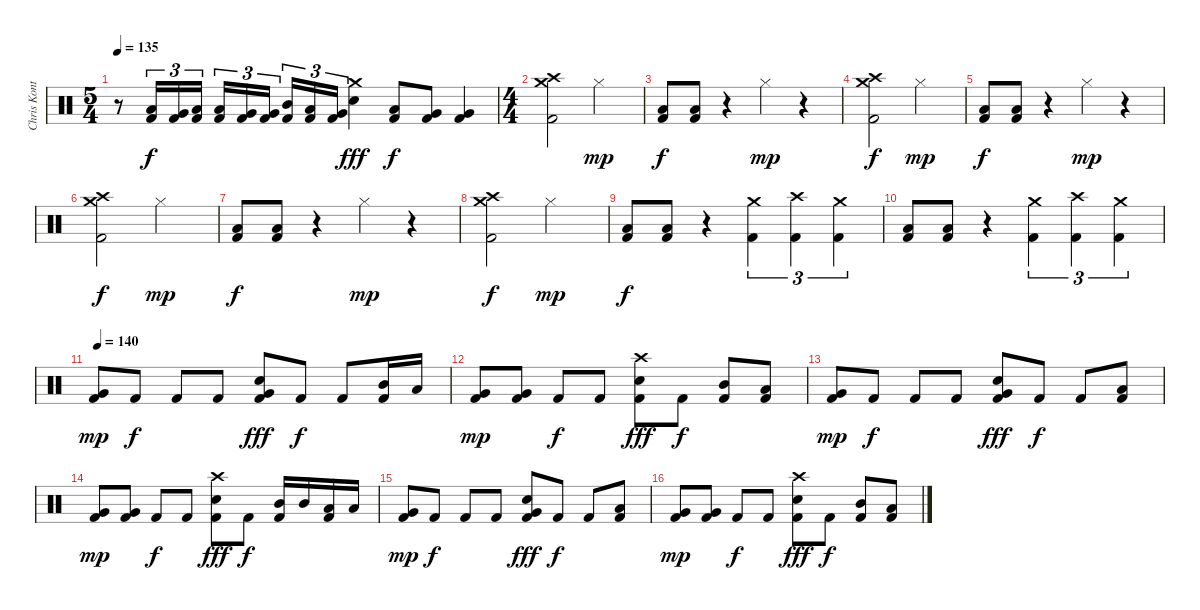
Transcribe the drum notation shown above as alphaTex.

\track ("Chris Kontos" "Chris Kont") {instrument percussion}
\staff {score}
\articulation defaults
\ts (5 4)
\tempo 135
\clef neutral
\ks c
r.8{dy f} ("Low Tom (hit)" "Kick (hit) 2").16{tu (3 2)} ("Very Low Tom (hit)" "Kick (hit) 2").16{tu (3 2)} ("Low Tom (hit)" "Kick (hit) 2").16{tu (3 2)} ("Low Tom (hit)" "Kick (hit) 2").16{tu (3 2)} ("Very Low Tom (hit)" "Kick (hit) 2").16{tu (3 2)} ("Very Low Tom (hit)" "Kick (hit) 2").16{tu (3 2)} ("Mid Tom (hit)" "Kick (hit) 2").16{tu (3 2)} ("Low Tom (hit)" "Kick (hit) 2").16{tu (3 2)} ("Very Low Tom (hit)" "Kick (hit) 2").16{tu (3 2)} ("Crash medium (hit)" "Electric Snare (hit)").4{dy fff} ("Low Tom (hit)" "Kick (hit) 2").8{dy f} ("Very Low Tom (hit)" "Kick (hit) 2").8 ("Very Low Tom (hit)" "Kick (hit) 2").4 |
\ts (4 4)
("Crash medium (hit)" "Crash high (hit)" "Kick (hit) 2").2 "Hi-Hat (closed)".2{dy mp} |
("Low Tom (hit)" "Kick (hit) 2").8{dy f} ("Low Tom (hit)" "Kick (hit) 2").8 r.4 "Hi-Hat (closed)".4{dy mp} r.4 |
("Crash medium (hit)" "Crash high (hit)" "Kick (hit) 2").2{dy f} "Hi-Hat (closed)".2{dy mp} |
("Low Tom (hit)" "Kick (hit) 2").8{dy f} ("Low Tom (hit)" "Kick (hit) 2").8 r.4 "Hi-Hat (closed)".4{dy mp} r.4 |
("Crash medium (hit)" "Crash high (hit)" "Kick (hit) 2").2{dy f} "Hi-Hat (closed)".2{dy mp} |
("Low Tom (hit)" "Kick (hit) 2").8{dy f} ("Low Tom (hit)" "Kick (hit) 2").8 r.4 "Hi-Hat (closed)".4{dy mp} r.4 |
("Crash medium (hit)" "Crash high (hit)" "Kick (hit) 2").2{dy f} "Hi-Hat (closed)".2{dy mp} |
("Low Tom (hit)" "Kick (hit) 2").8{dy f} ("Low Tom (hit)" "Kick (hit) 2").8 r.4 ("Crash medium (hit)" "Kick (hit) 2").4{tu (3 2)} ("Crash high (hit)" "Kick (hit) 2").4{tu (3 2)} ("Crash medium (hit)" "Kick (hit) 2").4{tu (3 2)} |
("Low Tom (hit)" "Kick (hit) 2").8 ("Low Tom (hit)" "Kick (hit) 2").8 r.4 ("Crash medium (hit)" "Kick (hit) 2").4{tu (3 2)} ("Crash high (hit)" "Kick (hit) 2").4{tu (3 2)} ("Crash medium (hit)" "Kick (hit) 2").4{tu (3 2)} |
\tempo 140
("Very Low Tom (hit)" "Kick (hit) 2").8{dy mp} "Kick (hit) 2".8{dy f} "Kick (hit) 2".8 "Kick (hit) 2".8 ("Very Low Tom (hit)" "Electric Snare (hit)" "Kick (hit) 2").8{dy fff} "Kick (hit) 2".8{dy f} "Kick (hit) 2".8 ("Mid Tom (hit)" "Kick (hit) 2").16 "Low Tom (hit)".16 |
("Very Low Tom (hit)" "Kick (hit) 2").8{dy mp} ("Very Low Tom (hit)" "Kick (hit) 2").8 "Kick (hit) 2".8{dy f} "Kick (hit) 2".8 ("Crash high (hit)" "Electric Snare (hit)" "Kick (hit) 2").8{dy fff} "Kick (hit) 2".8{dy f} ("Mid Tom (hit)" "Kick (hit) 2").8 ("Low Tom (hit)" "Kick (hit) 2").8 |
("Very Low Tom (hit)" "Kick (hit) 2").8{dy mp} "Kick (hit) 2".8{dy f} "Kick (hit) 2".8 "Kick (hit) 2".8 ("Very Low Tom (hit)" "Electric Snare (hit)" "Kick (hit) 2").8{dy fff} "Kick (hit) 2".8{dy f} "Kick (hit) 2".8 ("Low Tom (hit)" "Kick (hit) 2").8 |
("Very Low Tom (hit)" "Kick (hit) 2").8{dy mp} ("Very Low Tom (hit)" "Kick (hit) 2").8 "Kick (hit) 2".8{dy f} "Kick (hit) 2".8 ("Crash high (hit)" "Electric Snare (hit)" "Kick (hit) 2").8{dy fff} "Kick (hit) 2".8{dy f} ("Mid Tom (hit)" "Kick (hit) 2").16 "Mid Tom (hit)".16 ("Low Tom (hit)" "Kick (hit) 2").16 "Low Tom (hit)".16 |
("Very Low Tom (hit)" "Kick (hit) 2").8{dy mp} "Kick (hit) 2".8{dy f} "Kick (hit) 2".8 "Kick (hit) 2".8 ("Very Low Tom (hit)" "Electric Snare (hit)" "Kick (hit) 2").8{dy fff} "Kick (hit) 2".8{dy f} "Kick (hit) 2".8 ("Low Tom (hit)" "Kick (hit) 2").8 |
("Very Low Tom (hit)" "Kick (hit) 2").8{dy mp} ("Very Low Tom (hit)" "Kick (hit) 2").8 "Kick (hit) 2".8{dy f} "Kick (hit) 2".8 ("Crash high (hit)" "Electric Snare (hit)" "Kick (hit) 2").8{dy fff} "Kick (hit) 2".8{dy f} ("Mid Tom (hit)" "Kick (hit) 2").8 ("Low Tom (hit)" "Kick (hit) 2").8
